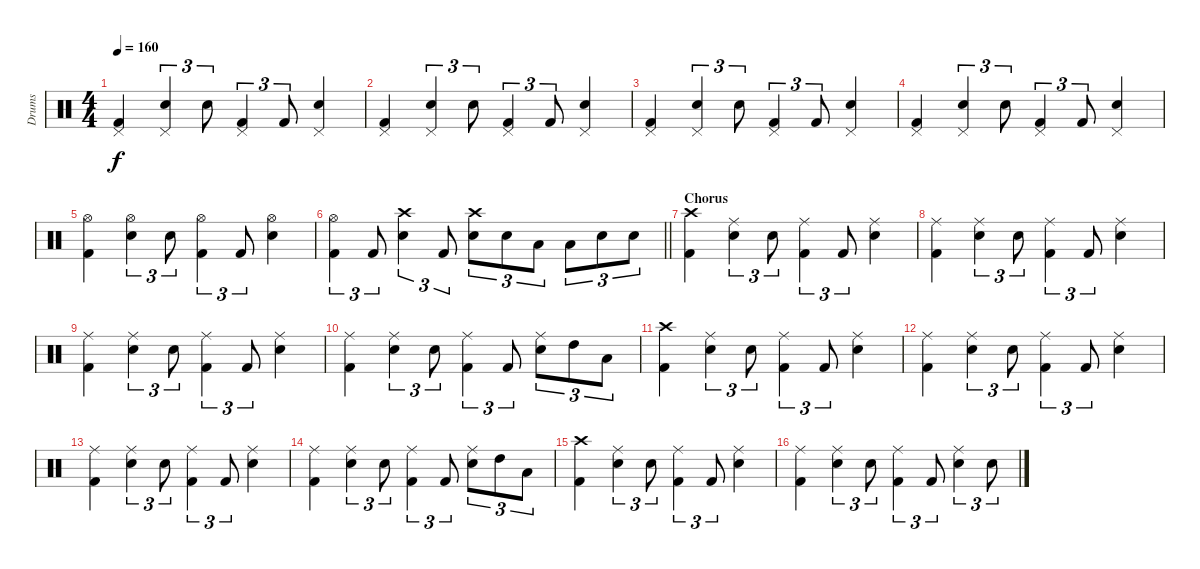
\track ("Drums" "Drums") {instrument percussion}
\staff {score}
\articulation defaults
\ts (4 4)
\tempo 160
\clef neutral
\ks c
("Pedal Hi-Hat (hit)" "Kick (hit) 2").4{dy f} ("Pedal Hi-Hat (hit)" "Snare (hit) 2").4{tu (3 2)} "Snare (hit) 2".8{tu (3 2)} ("Pedal Hi-Hat (hit)" "Kick (hit) 2").4{tu (3 2)} "Kick (hit) 2".8{tu (3 2)} ("Pedal Hi-Hat (hit)" "Snare (hit) 2").4 |
("Pedal Hi-Hat (hit)" "Kick (hit) 2").4 ("Pedal Hi-Hat (hit)" "Snare (hit) 2").4{tu (3 2)} "Snare (hit) 2".8{tu (3 2)} ("Pedal Hi-Hat (hit)" "Kick (hit) 2").4{tu (3 2)} "Kick (hit) 2".8{tu (3 2)} ("Pedal Hi-Hat (hit)" "Snare (hit) 2").4 |
("Pedal Hi-Hat (hit)" "Kick (hit) 2").4 ("Pedal Hi-Hat (hit)" "Snare (hit) 2").4{tu (3 2)} "Snare (hit) 2".8{tu (3 2)} ("Pedal Hi-Hat (hit)" "Kick (hit) 2").4{tu (3 2)} "Kick (hit) 2".8{tu (3 2)} ("Pedal Hi-Hat (hit)" "Snare (hit) 2").4 |
("Pedal Hi-Hat (hit)" "Kick (hit) 2").4 ("Pedal Hi-Hat (hit)" "Snare (hit) 2").4{tu (3 2)} "Snare (hit) 2".8{tu (3 2)} ("Pedal Hi-Hat (hit)" "Kick (hit) 2").4{tu (3 2)} "Kick (hit) 2".8{tu (3 2)} ("Pedal Hi-Hat (hit)" "Snare (hit) 2").4 |
("Hi-Hat (open)" "Kick (hit) 2").4 ("Hi-Hat (open)" "Snare (hit) 2").4{tu (3 2)} "Snare (hit) 2".8{tu (3 2)} ("Hi-Hat (open)" "Kick (hit) 2").4{tu (3 2)} "Kick (hit) 2".8{tu (3 2)} ("Hi-Hat (open)" "Snare (hit) 2").4 |
\barLineRight lightlight
("Hi-Hat (open)" "Kick (hit) 2").4{tu (3 2)} "Kick (hit) 2".8{tu (3 2)} ("Crash high (hit)" "Snare (hit) 2").4{tu (3 2)} "Kick (hit) 2".8{tu (3 2)} ("Crash high (hit)" "Snare (hit) 2").8{tu (3 2)} "Snare (hit) 2".8{tu (3 2)} "Low Tom (hit)".8{tu (3 2)} "Low Tom (hit)".8{tu (3 2)} "Snare (hit) 2".8{tu (3 2)} "Snare (hit) 2".8{tu (3 2)} |
\section ("" "Chorus")
("Crash high (hit)" "Kick (hit) 2").4 ("Ride (middle)" "Snare (hit) 2").4{tu (3 2)} "Snare (hit) 2".8{tu (3 2)} ("Ride (middle)" "Kick (hit) 2").4{tu (3 2)} "Kick (hit) 2".8{tu (3 2)} ("Ride (middle)" "Snare (hit) 2").4 |
("Ride (middle)" "Kick (hit) 2").4 ("Ride (middle)" "Snare (hit) 2").4{tu (3 2)} "Snare (hit) 2".8{tu (3 2)} ("Ride (middle)" "Kick (hit) 2").4{tu (3 2)} "Kick (hit) 2".8{tu (3 2)} ("Ride (middle)" "Snare (hit) 2").4 |
("Ride (middle)" "Kick (hit) 2").4 ("Ride (middle)" "Snare (hit) 2").4{tu (3 2)} "Snare (hit) 2".8{tu (3 2)} ("Ride (middle)" "Kick (hit) 2").4{tu (3 2)} "Kick (hit) 2".8{tu (3 2)} ("Ride (middle)" "Snare (hit) 2").4 |
("Ride (middle)" "Kick (hit) 2").4 ("Ride (middle)" "Snare (hit) 2").4{tu (3 2)} "Snare (hit) 2".8{tu (3 2)} ("Ride (middle)" "Kick (hit) 2").4{tu (3 2)} "Kick (hit) 2".8{tu (3 2)} ("Ride (middle)" "Snare (hit) 2").8{tu (3 2)} "High Tom (hit)".8{tu (3 2)} "Low Tom (hit)".8{tu (3 2)} |
("Crash high (hit)" "Kick (hit) 2").4 ("Ride (middle)" "Snare (hit) 2").4{tu (3 2)} "Snare (hit) 2".8{tu (3 2)} ("Ride (middle)" "Kick (hit) 2").4{tu (3 2)} "Kick (hit) 2".8{tu (3 2)} ("Ride (middle)" "Snare (hit) 2").4 |
("Ride (middle)" "Kick (hit) 2").4 ("Ride (middle)" "Snare (hit) 2").4{tu (3 2)} "Snare (hit) 2".8{tu (3 2)} ("Ride (middle)" "Kick (hit) 2").4{tu (3 2)} "Kick (hit) 2".8{tu (3 2)} ("Ride (middle)" "Snare (hit) 2").4 |
("Ride (middle)" "Kick (hit) 2").4 ("Ride (middle)" "Snare (hit) 2").4{tu (3 2)} "Snare (hit) 2".8{tu (3 2)} ("Ride (middle)" "Kick (hit) 2").4{tu (3 2)} "Kick (hit) 2".8{tu (3 2)} ("Ride (middle)" "Snare (hit) 2").4 |
("Ride (middle)" "Kick (hit) 2").4 ("Ride (middle)" "Snare (hit) 2").4{tu (3 2)} "Snare (hit) 2".8{tu (3 2)} ("Ride (middle)" "Kick (hit) 2").4{tu (3 2)} "Kick (hit) 2".8{tu (3 2)} ("Ride (middle)" "Snare (hit) 2").8{tu (3 2)} "High Tom (hit)".8{tu (3 2)} "Low Tom (hit)".8{tu (3 2)} |
("Crash high (hit)" "Kick (hit) 2").4 ("Ride (middle)" "Snare (hit) 2").4{tu (3 2)} "Snare (hit) 2".8{tu (3 2)} ("Ride (middle)" "Kick (hit) 2").4{tu (3 2)} "Kick (hit) 2".8{tu (3 2)} ("Ride (middle)" "Snare (hit) 2").4 |
("Ride (middle)" "Kick (hit) 2").4 ("Ride (middle)" "Snare (hit) 2").4{tu (3 2)} "Snare (hit) 2".8{tu (3 2)} ("Ride (middle)" "Kick (hit) 2").4{tu (3 2)} "Kick (hit) 2".8{tu (3 2)} ("Ride (middle)" "Snare (hit) 2").4{tu (3 2)} "Snare (hit) 2".8{tu (3 2)}
